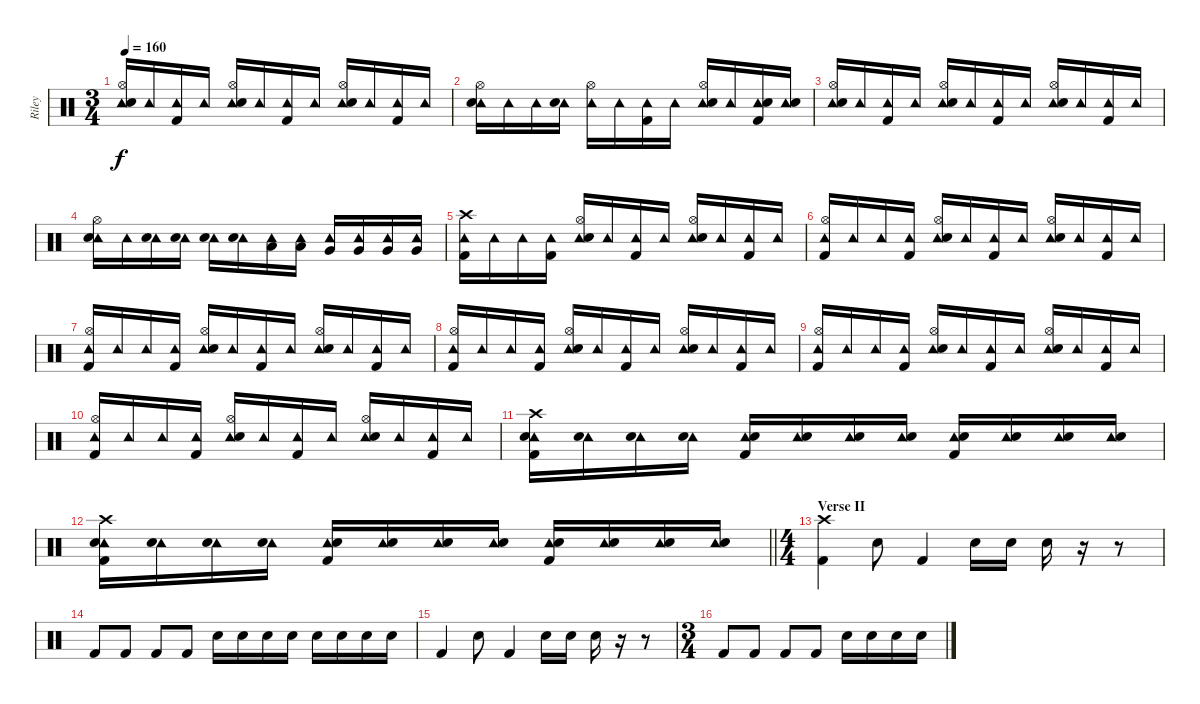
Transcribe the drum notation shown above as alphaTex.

\track ("Riley" "Riley") {instrument percussion}
\staff {score}
\articulation defaults
\ts (3 4)
\tempo 160
\clef neutral
\ks c
("Tambourine (hit)" "Hi-Hat (open)" "Electric Snare (hit)").16{dy f} "Tambourine (hit)".16 ("Tambourine (hit)" "Kick (hit) 2").16 "Tambourine (hit)".16 ("Tambourine (hit)" "Hi-Hat (open)" "Electric Snare (hit)").16 "Tambourine (hit)".16 ("Tambourine (hit)" "Kick (hit) 2").16 "Tambourine (hit)".16 ("Tambourine (hit)" "Hi-Hat (open)" "Electric Snare (hit)").16 "Tambourine (hit)".16 ("Tambourine (hit)" "Kick (hit) 2").16 "Tambourine (hit)".16 |
("Tambourine (hit)" "Hi-Hat (open)" "Electric Snare (hit)").16 "Tambourine (hit)".16 "Tambourine (hit)".16 ("Tambourine (hit)" "Electric Snare (hit)").16 ("Tambourine (hit)" "Hi-Hat (open)").16 "Tambourine (hit)".16 ("Tambourine (hit)" "Kick (hit) 2").16 "Tambourine (hit)".16 ("Tambourine (hit)" "Hi-Hat (open)" "Electric Snare (hit)").16 "Tambourine (hit)".16 ("Tambourine (hit)" "Electric Snare (hit)" "Kick (hit) 2").16 ("Tambourine (hit)" "Electric Snare (hit)").16 |
("Tambourine (hit)" "Hi-Hat (open)" "Electric Snare (hit)").16 "Tambourine (hit)".16 ("Tambourine (hit)" "Kick (hit) 2").16 "Tambourine (hit)".16 ("Tambourine (hit)" "Hi-Hat (open)" "Electric Snare (hit)").16 "Tambourine (hit)".16 ("Tambourine (hit)" "Kick (hit) 2").16 "Tambourine (hit)".16 ("Tambourine (hit)" "Hi-Hat (open)" "Electric Snare (hit)").16 "Tambourine (hit)".16 ("Tambourine (hit)" "Kick (hit) 2").16 "Tambourine (hit)".16 |
("Tambourine (hit)" "Hi-Hat (open)" "Electric Snare (hit)").16 "Tambourine (hit)".16 ("Tambourine (hit)" "Electric Snare (hit)").16 ("Tambourine (hit)" "Electric Snare (hit)").16 ("Tambourine (hit)" "Electric Snare (hit)").16 ("Tambourine (hit)" "Electric Snare (hit)").16 ("Tambourine (hit)" "Low Tom (hit)").16 ("Tambourine (hit)" "Low Tom (hit)").16 ("Tambourine (hit)" "Very Low Tom (hit)").16 ("Tambourine (hit)" "Very Low Tom (hit)").16 ("Tambourine (hit)" "Very Low Tom (hit)").16 ("Tambourine (hit)" "Very Low Tom (hit)").16 |
("Tambourine (hit)" "Crash high (hit)" "Kick (hit) 2").16 "Tambourine (hit)".16 "Tambourine (hit)".16 ("Tambourine (hit)" "Kick (hit) 2").16 ("Tambourine (hit)" "Hi-Hat (open)" "Electric Snare (hit)").16 "Tambourine (hit)".16 ("Tambourine (hit)" "Kick (hit) 2").16 "Tambourine (hit)".16 ("Tambourine (hit)" "Hi-Hat (open)" "Electric Snare (hit)").16 "Tambourine (hit)".16 ("Tambourine (hit)" "Kick (hit) 2").16 "Tambourine (hit)".16 |
("Tambourine (hit)" "Hi-Hat (open)" "Kick (hit) 2").16 "Tambourine (hit)".16 "Tambourine (hit)".16 ("Tambourine (hit)" "Kick (hit) 2").16 ("Tambourine (hit)" "Hi-Hat (open)" "Electric Snare (hit)").16 "Tambourine (hit)".16 ("Tambourine (hit)" "Kick (hit) 2").16 "Tambourine (hit)".16 ("Tambourine (hit)" "Hi-Hat (open)" "Electric Snare (hit)").16 "Tambourine (hit)".16 ("Tambourine (hit)" "Kick (hit) 2").16 "Tambourine (hit)".16 |
("Tambourine (hit)" "Hi-Hat (open)" "Kick (hit) 2").16 "Tambourine (hit)".16 "Tambourine (hit)".16 ("Tambourine (hit)" "Kick (hit) 2").16 ("Tambourine (hit)" "Hi-Hat (open)" "Electric Snare (hit)").16 "Tambourine (hit)".16 ("Tambourine (hit)" "Kick (hit) 2").16 "Tambourine (hit)".16 ("Tambourine (hit)" "Hi-Hat (open)" "Electric Snare (hit)").16 "Tambourine (hit)".16 ("Tambourine (hit)" "Kick (hit) 2").16 "Tambourine (hit)".16 |
("Tambourine (hit)" "Hi-Hat (open)" "Kick (hit) 2").16 "Tambourine (hit)".16 "Tambourine (hit)".16 ("Tambourine (hit)" "Kick (hit) 2").16 ("Tambourine (hit)" "Hi-Hat (open)" "Electric Snare (hit)").16 "Tambourine (hit)".16 ("Tambourine (hit)" "Kick (hit) 2").16 "Tambourine (hit)".16 ("Tambourine (hit)" "Hi-Hat (open)" "Electric Snare (hit)").16 "Tambourine (hit)".16 ("Tambourine (hit)" "Kick (hit) 2").16 "Tambourine (hit)".16 |
("Tambourine (hit)" "Hi-Hat (open)" "Kick (hit) 2").16 "Tambourine (hit)".16 "Tambourine (hit)".16 ("Tambourine (hit)" "Kick (hit) 2").16 ("Tambourine (hit)" "Hi-Hat (open)" "Electric Snare (hit)").16 "Tambourine (hit)".16 ("Tambourine (hit)" "Kick (hit) 2").16 "Tambourine (hit)".16 ("Tambourine (hit)" "Hi-Hat (open)" "Electric Snare (hit)").16 "Tambourine (hit)".16 ("Tambourine (hit)" "Kick (hit) 2").16 "Tambourine (hit)".16 |
("Tambourine (hit)" "Hi-Hat (open)" "Kick (hit) 2").16 "Tambourine (hit)".16 "Tambourine (hit)".16 ("Tambourine (hit)" "Kick (hit) 2").16 ("Tambourine (hit)" "Hi-Hat (open)" "Electric Snare (hit)").16 "Tambourine (hit)".16 ("Tambourine (hit)" "Kick (hit) 2").16 "Tambourine (hit)".16 ("Tambourine (hit)" "Hi-Hat (open)" "Electric Snare (hit)").16 "Tambourine (hit)".16 ("Tambourine (hit)" "Kick (hit) 2").16 "Tambourine (hit)".16 |
("Tambourine (hit)" "Crash high (hit)" "Electric Snare (hit)" "Kick (hit) 2").16 ("Tambourine (hit)" "Electric Snare (hit)").16 ("Tambourine (hit)" "Electric Snare (hit)").16 ("Tambourine (hit)" "Electric Snare (hit)").16 ("Tambourine (hit)" "Electric Snare (hit)" "Kick (hit) 2").16 ("Tambourine (hit)" "Electric Snare (hit)").16 ("Tambourine (hit)" "Electric Snare (hit)").16 ("Tambourine (hit)" "Electric Snare (hit)").16 ("Tambourine (hit)" "Electric Snare (hit)" "Kick (hit) 2").16 ("Tambourine (hit)" "Electric Snare (hit)").16 ("Tambourine (hit)" "Electric Snare (hit)").16 ("Tambourine (hit)" "Electric Snare (hit)").16 |
\barLineRight lightlight
("Tambourine (hit)" "Crash high (hit)" "Electric Snare (hit)" "Kick (hit) 2").16 ("Tambourine (hit)" "Electric Snare (hit)").16 ("Tambourine (hit)" "Electric Snare (hit)").16 ("Tambourine (hit)" "Electric Snare (hit)").16 ("Tambourine (hit)" "Electric Snare (hit)" "Kick (hit) 2").16 ("Tambourine (hit)" "Electric Snare (hit)").16 ("Tambourine (hit)" "Electric Snare (hit)").16 ("Tambourine (hit)" "Electric Snare (hit)").16 ("Tambourine (hit)" "Electric Snare (hit)" "Kick (hit) 2").16 ("Tambourine (hit)" "Electric Snare (hit)").16 ("Tambourine (hit)" "Electric Snare (hit)").16 ("Tambourine (hit)" "Electric Snare (hit)").16 |
\ts (4 4)
\section ("" "Verse II")
("Crash high (hit)" "Kick (hit) 2").4 "Electric Snare (hit)".8 "Kick (hit) 2".4 "Electric Snare (hit)".16 "Electric Snare (hit)".16 "Electric Snare (hit)".16 r.16 r.8 |
"Kick (hit) 2".8 "Kick (hit) 2".8 "Kick (hit) 2".8 "Kick (hit) 2".8 "Electric Snare (hit)".16 "Electric Snare (hit)".16 "Electric Snare (hit)".16 "Electric Snare (hit)".16 "Electric Snare (hit)".16 "Electric Snare (hit)".16 "Electric Snare (hit)".16 "Electric Snare (hit)".16 |
"Kick (hit) 2".4 "Electric Snare (hit)".8 "Kick (hit) 2".4 "Electric Snare (hit)".16 "Electric Snare (hit)".16 "Electric Snare (hit)".16 r.16 r.8 |
\ts (3 4)
"Kick (hit) 2".8 "Kick (hit) 2".8 "Kick (hit) 2".8 "Kick (hit) 2".8 "Electric Snare (hit)".16 "Electric Snare (hit)".16 "Electric Snare (hit)".16 "Electric Snare (hit)".16
